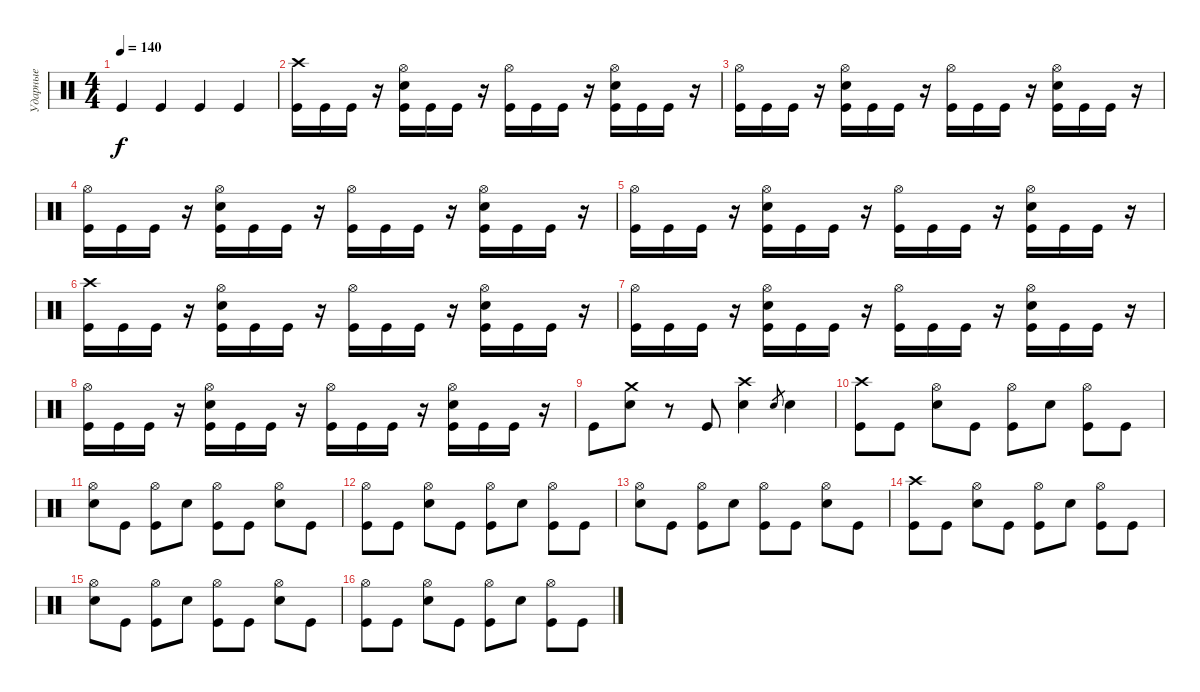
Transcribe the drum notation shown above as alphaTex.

\track ("Ударные" "Ударные") {instrument percussion}
\staff {score}
\articulation defaults
\ts (4 4)
\tempo 140
\clef neutral
\ks c "Kick (hit)".4{dy f} "Kick (hit)".4 "Kick (hit)".4 "Kick (hit)".4
|
("Kick (hit)" "Crash high (hit)").16 "Kick (hit)".16 "Kick (hit)".16 r.16 ("Kick (hit)" "Snare (hit) 2" "Hi-Hat (open)").16 "Kick (hit)".16 "Kick (hit)".16 r.16 ("Kick (hit)" "Hi-Hat (open)").16 "Kick (hit)".16 "Kick (hit)".16 r.16 ("Kick (hit)" "Snare (hit) 2" "Hi-Hat (open)").16 "Kick (hit)".16 "Kick (hit)".16 r.16 |
("Kick (hit)" "Hi-Hat (open)").16 "Kick (hit)".16 "Kick (hit)".16 r.16 ("Kick (hit)" "Snare (hit) 2" "Hi-Hat (open)").16 "Kick (hit)".16 "Kick (hit)".16 r.16 ("Kick (hit)" "Hi-Hat (open)").16 "Kick (hit)".16 "Kick (hit)".16 r.16 ("Kick (hit)" "Snare (hit) 2" "Hi-Hat (open)").16 "Kick (hit)".16 "Kick (hit)".16 r.16 |
("Kick (hit)" "Hi-Hat (open)").16 "Kick (hit)".16 "Kick (hit)".16 r.16 ("Kick (hit)" "Snare (hit) 2" "Hi-Hat (open)").16 "Kick (hit)".16 "Kick (hit)".16 r.16 ("Kick (hit)" "Hi-Hat (open)").16 "Kick (hit)".16 "Kick (hit)".16 r.16 ("Kick (hit)" "Snare (hit) 2" "Hi-Hat (open)").16 "Kick (hit)".16 "Kick (hit)".16 r.16 |
("Kick (hit)" "Hi-Hat (open)").16 "Kick (hit)".16 "Kick (hit)".16 r.16 ("Kick (hit)" "Snare (hit) 2" "Hi-Hat (open)").16 "Kick (hit)".16 "Kick (hit)".16 r.16 ("Kick (hit)" "Hi-Hat (open)").16 "Kick (hit)".16 "Kick (hit)".16 r.16 ("Kick (hit)" "Snare (hit) 2" "Hi-Hat (open)").16 "Kick (hit)".16 "Kick (hit)".16 r.16 |
("Kick (hit)" "Crash high (hit)").16 "Kick (hit)".16 "Kick (hit)".16 r.16 ("Kick (hit)" "Snare (hit) 2" "Hi-Hat (open)").16 "Kick (hit)".16 "Kick (hit)".16 r.16 ("Kick (hit)" "Hi-Hat (open)").16 "Kick (hit)".16 "Kick (hit)".16 r.16 ("Kick (hit)" "Snare (hit) 2" "Hi-Hat (open)").16 "Kick (hit)".16 "Kick (hit)".16 r.16 |
("Kick (hit)" "Hi-Hat (open)").16 "Kick (hit)".16 "Kick (hit)".16 r.16 ("Kick (hit)" "Snare (hit) 2" "Hi-Hat (open)").16 "Kick (hit)".16 "Kick (hit)".16 r.16 ("Kick (hit)" "Hi-Hat (open)").16 "Kick (hit)".16 "Kick (hit)".16 r.16 ("Kick (hit)" "Snare (hit) 2" "Hi-Hat (open)").16 "Kick (hit)".16 "Kick (hit)".16 r.16 |
("Kick (hit)" "Hi-Hat (open)").16 "Kick (hit)".16 "Kick (hit)".16 r.16 ("Kick (hit)" "Snare (hit) 2" "Hi-Hat (open)").16 "Kick (hit)".16 "Kick (hit)".16 r.16 ("Kick (hit)" "Hi-Hat (open)").16 "Kick (hit)".16 "Kick (hit)".16 r.16 ("Kick (hit)" "Snare (hit) 2" "Hi-Hat (open)").16 "Kick (hit)".16 "Kick (hit)".16 r.16 |
"Kick (hit)".8 ("Snare (hit) 2" "Crash medium (hit)").8 r.8 "Kick (hit)".8 ("Snare (hit) 2" "Crash high (hit)").4 "Snare (hit) 2".8{gr} "Snare (hit) 2".4 |
("Kick (hit)" "Crash high (hit)").8 "Kick (hit)".8 ("Snare (hit) 2" "Hi-Hat (open)").8 "Kick (hit)".8 ("Kick (hit)" "Hi-Hat (open)").8 "Snare (hit) 2".8 ("Kick (hit)" "Hi-Hat (open)").8 "Kick (hit)".8 |
("Snare (hit) 2" "Hi-Hat (open)").8 "Kick (hit)".8 ("Kick (hit)" "Hi-Hat (open)").8 "Snare (hit) 2".8 ("Kick (hit)" "Hi-Hat (open)").8 "Kick (hit)".8 ("Snare (hit) 2" "Hi-Hat (open)").8 "Kick (hit)".8 |
("Kick (hit)" "Hi-Hat (open)").8 "Kick (hit)".8 ("Snare (hit) 2" "Hi-Hat (open)").8 "Kick (hit)".8 ("Kick (hit)" "Hi-Hat (open)").8 "Snare (hit) 2".8 ("Kick (hit)" "Hi-Hat (open)").8 "Kick (hit)".8 |
("Snare (hit) 2" "Hi-Hat (open)").8 "Kick (hit)".8 ("Kick (hit)" "Hi-Hat (open)").8 "Snare (hit) 2".8 ("Kick (hit)" "Hi-Hat (open)").8 "Kick (hit)".8 ("Snare (hit) 2" "Hi-Hat (open)").8 "Kick (hit)".8 |
("Kick (hit)" "Crash high (hit)").8 "Kick (hit)".8 ("Snare (hit) 2" "Hi-Hat (open)").8 "Kick (hit)".8 ("Kick (hit)" "Hi-Hat (open)").8 "Snare (hit) 2".8 ("Kick (hit)" "Hi-Hat (open)").8 "Kick (hit)".8 |
("Snare (hit) 2" "Hi-Hat (open)").8 "Kick (hit)".8 ("Kick (hit)" "Hi-Hat (open)").8 "Snare (hit) 2".8 ("Kick (hit)" "Hi-Hat (open)").8 "Kick (hit)".8 ("Snare (hit) 2" "Hi-Hat (open)").8 "Kick (hit)".8 |
("Kick (hit)" "Hi-Hat (open)").8 "Kick (hit)".8 ("Snare (hit) 2" "Hi-Hat (open)").8 "Kick (hit)".8 ("Kick (hit)" "Hi-Hat (open)").8 "Snare (hit) 2".8 ("Kick (hit)" "Hi-Hat (open)").8 "Kick (hit)".8
